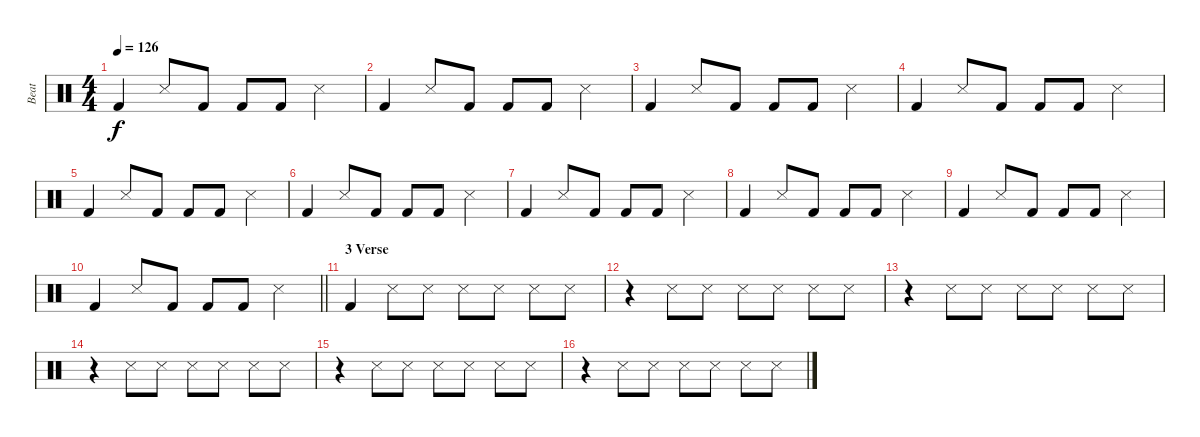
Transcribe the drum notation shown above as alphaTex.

\track ("Beat" "Beat") {instrument percussion}
\staff {score}
\articulation defaults
\ts (4 4)
\tempo 126
\clef neutral
\ks c "Kick (hit) 2".4{dy f} "Snare (side stick) 3".8 "Kick (hit) 2".8 "Kick (hit) 2".8 "Kick (hit) 2".8 "Snare (side stick) 3".4
|
"Kick (hit) 2".4 "Snare (side stick) 3".8 "Kick (hit) 2".8 "Kick (hit) 2".8 "Kick (hit) 2".8 "Snare (side stick) 3".4 |
"Kick (hit) 2".4 "Snare (side stick) 3".8 "Kick (hit) 2".8 "Kick (hit) 2".8 "Kick (hit) 2".8 "Snare (side stick) 3".4 |
"Kick (hit) 2".4 "Snare (side stick) 3".8 "Kick (hit) 2".8 "Kick (hit) 2".8 "Kick (hit) 2".8 "Snare (side stick) 3".4 |
"Kick (hit) 2".4 "Snare (side stick) 3".8 "Kick (hit) 2".8 "Kick (hit) 2".8 "Kick (hit) 2".8 "Snare (side stick) 3".4 |
"Kick (hit) 2".4 "Snare (side stick) 3".8 "Kick (hit) 2".8 "Kick (hit) 2".8 "Kick (hit) 2".8 "Snare (side stick) 3".4 |
"Kick (hit) 2".4 "Snare (side stick) 3".8 "Kick (hit) 2".8 "Kick (hit) 2".8 "Kick (hit) 2".8 "Snare (side stick) 3".4 |
"Kick (hit) 2".4 "Snare (side stick) 3".8 "Kick (hit) 2".8 "Kick (hit) 2".8 "Kick (hit) 2".8 "Snare (side stick) 3".4 |
"Kick (hit) 2".4 "Snare (side stick) 3".8 "Kick (hit) 2".8 "Kick (hit) 2".8 "Kick (hit) 2".8 "Snare (side stick) 3".4 |
\barLineRight lightlight "Kick (hit) 2".4 "Snare (side stick) 3".8 "Kick (hit) 2".8 "Kick (hit) 2".8 "Kick (hit) 2".8 "Snare (side stick) 3".4
|
\section ("" "3 Verse")
"Kick (hit) 2".4 "Snare (side stick) 3".8 "Snare (side stick) 3".8 "Snare (side stick) 3".8 "Snare (side stick) 3".8 "Snare (side stick) 3".8 "Snare (side stick) 3".8 |
r.4 "Snare (side stick) 3".8 "Snare (side stick) 3".8 "Snare (side stick) 3".8 "Snare (side stick) 3".8 "Snare (side stick) 3".8 "Snare (side stick) 3".8 |
r.4 "Snare (side stick) 3".8 "Snare (side stick) 3".8 "Snare (side stick) 3".8 "Snare (side stick) 3".8 "Snare (side stick) 3".8 "Snare (side stick) 3".8 |
r.4 "Snare (side stick) 3".8 "Snare (side stick) 3".8 "Snare (side stick) 3".8 "Snare (side stick) 3".8 "Snare (side stick) 3".8 "Snare (side stick) 3".8 |
r.4 "Snare (side stick) 3".8 "Snare (side stick) 3".8 "Snare (side stick) 3".8 "Snare (side stick) 3".8 "Snare (side stick) 3".8 "Snare (side stick) 3".8 |
r.4 "Snare (side stick) 3".8 "Snare (side stick) 3".8 "Snare (side stick) 3".8 "Snare (side stick) 3".8 "Snare (side stick) 3".8 "Snare (side stick) 3".8
